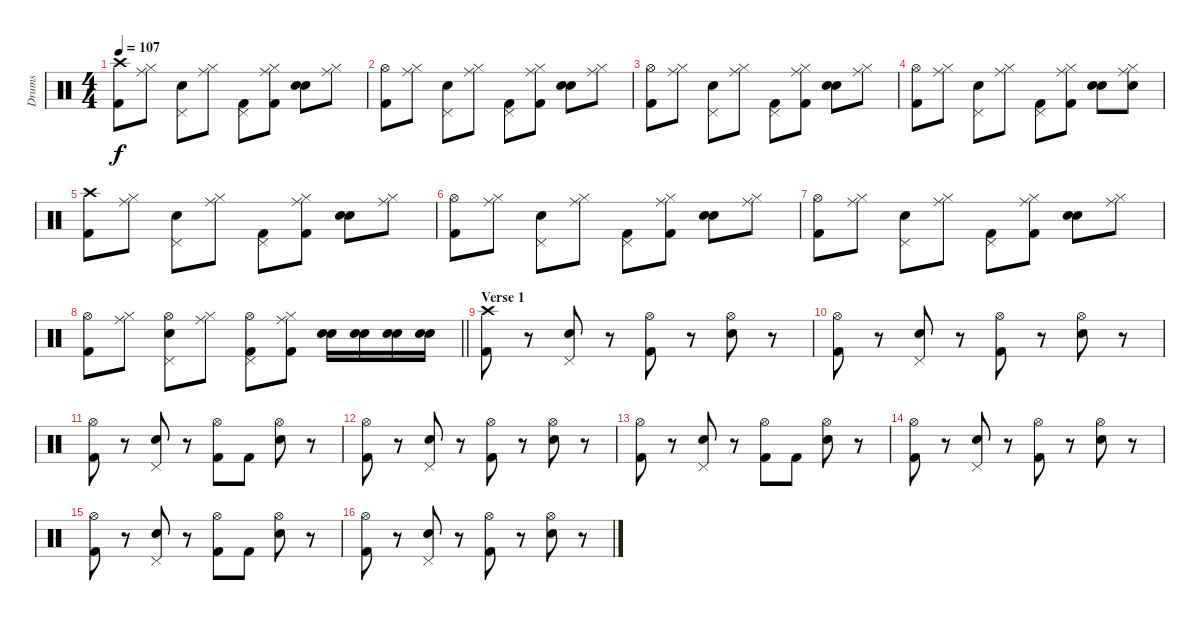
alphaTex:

\track ("Drums" "Drums") {instrument percussion}
\staff {score}
\articulation defaults
\ts (4 4)
\tempo 107
\clef neutral
\ks c
("Crash high (hit)" "Kick (hit) 2").8{dy f} ("Ride (middle)" "Hi-Hat (closed)").8 ("Pedal Hi-Hat (hit)" "Electric Snare (hit)").8 ("Ride (middle)" "Hi-Hat (closed)").8 ("Pedal Hi-Hat (hit)" "Kick (hit) 2").8 ("Ride (middle)" "Hi-Hat (closed)" "Kick (hit) 2").8 ("Snare (hit) 2" "Electric Snare (hit)").8 ("Ride (middle)" "Hi-Hat (closed)").8 |
("Hi-Hat (open)" "Kick (hit) 2").8 ("Ride (middle)" "Hi-Hat (closed)").8 ("Pedal Hi-Hat (hit)" "Electric Snare (hit)").8 ("Ride (middle)" "Hi-Hat (closed)").8 ("Pedal Hi-Hat (hit)" "Kick (hit) 2").8 ("Ride (middle)" "Hi-Hat (closed)" "Kick (hit) 2").8 ("Snare (hit) 2" "Electric Snare (hit)").8 ("Ride (middle)" "Hi-Hat (closed)").8 |
("Hi-Hat (open)" "Kick (hit) 2").8 ("Ride (middle)" "Hi-Hat (closed)").8 ("Pedal Hi-Hat (hit)" "Electric Snare (hit)").8 ("Ride (middle)" "Hi-Hat (closed)").8 ("Pedal Hi-Hat (hit)" "Kick (hit) 2").8 ("Ride (middle)" "Hi-Hat (closed)" "Kick (hit) 2").8 ("Snare (hit) 2" "Electric Snare (hit)").8 ("Ride (middle)" "Hi-Hat (closed)").8 |
("Hi-Hat (open)" "Kick (hit) 2").8 ("Ride (middle)" "Hi-Hat (closed)").8 ("Pedal Hi-Hat (hit)" "Electric Snare (hit)").8 ("Ride (middle)" "Hi-Hat (closed)").8 ("Pedal Hi-Hat (hit)" "Kick (hit) 2").8 ("Ride (middle)" "Hi-Hat (closed)" "Kick (hit) 2").8 ("Snare (hit) 2" "Electric Snare (hit)").8 ("Ride (middle)" "Hi-Hat (closed)" "Electric Snare (hit)").8 |
("Crash high (hit)" "Kick (hit) 2").8 ("Ride (middle)" "Hi-Hat (closed)").8 ("Pedal Hi-Hat (hit)" "Electric Snare (hit)").8 ("Ride (middle)" "Hi-Hat (closed)").8 ("Pedal Hi-Hat (hit)" "Kick (hit) 2").8 ("Ride (middle)" "Hi-Hat (closed)" "Kick (hit) 2").8 ("Snare (hit) 2" "Electric Snare (hit)").8 ("Ride (middle)" "Hi-Hat (closed)").8 |
("Hi-Hat (open)" "Kick (hit) 2").8 ("Ride (middle)" "Hi-Hat (closed)").8 ("Pedal Hi-Hat (hit)" "Electric Snare (hit)").8 ("Ride (middle)" "Hi-Hat (closed)").8 ("Pedal Hi-Hat (hit)" "Kick (hit) 2").8 ("Ride (middle)" "Hi-Hat (closed)" "Kick (hit) 2").8 ("Snare (hit) 2" "Electric Snare (hit)").8 ("Ride (middle)" "Hi-Hat (closed)").8 |
("Hi-Hat (open)" "Kick (hit) 2").8 ("Ride (middle)" "Hi-Hat (closed)").8 ("Pedal Hi-Hat (hit)" "Electric Snare (hit)").8 ("Ride (middle)" "Hi-Hat (closed)").8 ("Pedal Hi-Hat (hit)" "Kick (hit) 2").8 ("Ride (middle)" "Hi-Hat (closed)" "Kick (hit) 2").8 ("Snare (hit) 2" "Electric Snare (hit)").8 ("Ride (middle)" "Hi-Hat (closed)").8 |
\barLineRight lightlight
("Hi-Hat (open)" "Kick (hit) 2").8 ("Ride (middle)" "Hi-Hat (closed)").8 ("Hi-Hat (open)" "Pedal Hi-Hat (hit)" "Electric Snare (hit)").8 ("Ride (middle)" "Hi-Hat (closed)").8 ("Hi-Hat (open)" "Pedal Hi-Hat (hit)" "Kick (hit) 2").8 ("Ride (middle)" "Hi-Hat (closed)" "Kick (hit) 2").8 ("Snare (hit) 2" "Electric Snare (hit)").16 ("Snare (hit) 2" "Electric Snare (hit)").16 ("Snare (hit) 2" "Electric Snare (hit)").16 ("Snare (hit) 2" "Electric Snare (hit)").16 |
\section ("" "Verse 1")
("Crash high (hit)" "Kick (hit) 2").8 r.8 ("Pedal Hi-Hat (hit)" "Electric Snare (hit)").8 r.8 ("Hi-Hat (open)" "Kick (hit) 2").8 r.8 ("Hi-Hat (open)" "Electric Snare (hit)").8 r.8 |
("Hi-Hat (open)" "Kick (hit) 2").8 r.8 ("Pedal Hi-Hat (hit)" "Electric Snare (hit)").8 r.8 ("Hi-Hat (open)" "Kick (hit) 2").8 r.8 ("Hi-Hat (open)" "Electric Snare (hit)").8 r.8 |
("Hi-Hat (open)" "Kick (hit) 2").8 r.8 ("Pedal Hi-Hat (hit)" "Electric Snare (hit)").8 r.8 ("Hi-Hat (open)" "Kick (hit) 2").8 "Kick (hit) 2".8 ("Hi-Hat (open)" "Electric Snare (hit)").8 r.8 |
("Hi-Hat (open)" "Kick (hit) 2").8 r.8 ("Pedal Hi-Hat (hit)" "Electric Snare (hit)").8 r.8 ("Hi-Hat (open)" "Kick (hit) 2").8 r.8 ("Hi-Hat (open)" "Electric Snare (hit)").8 r.8 |
("Hi-Hat (open)" "Kick (hit) 2").8 r.8 ("Pedal Hi-Hat (hit)" "Electric Snare (hit)").8 r.8 ("Hi-Hat (open)" "Kick (hit) 2").8 "Kick (hit) 2".8 ("Hi-Hat (open)" "Electric Snare (hit)").8 r.8 |
("Hi-Hat (open)" "Kick (hit) 2").8 r.8 ("Pedal Hi-Hat (hit)" "Electric Snare (hit)").8 r.8 ("Hi-Hat (open)" "Kick (hit) 2").8 r.8 ("Hi-Hat (open)" "Electric Snare (hit)").8 r.8 |
("Hi-Hat (open)" "Kick (hit) 2").8 r.8 ("Pedal Hi-Hat (hit)" "Electric Snare (hit)").8 r.8 ("Hi-Hat (open)" "Kick (hit) 2").8 "Kick (hit) 2".8 ("Hi-Hat (open)" "Electric Snare (hit)").8 r.8 |
("Hi-Hat (open)" "Kick (hit) 2").8 r.8 ("Pedal Hi-Hat (hit)" "Electric Snare (hit)").8 r.8 ("Hi-Hat (open)" "Kick (hit) 2").8 r.8 ("Hi-Hat (open)" "Electric Snare (hit)").8 r.8
